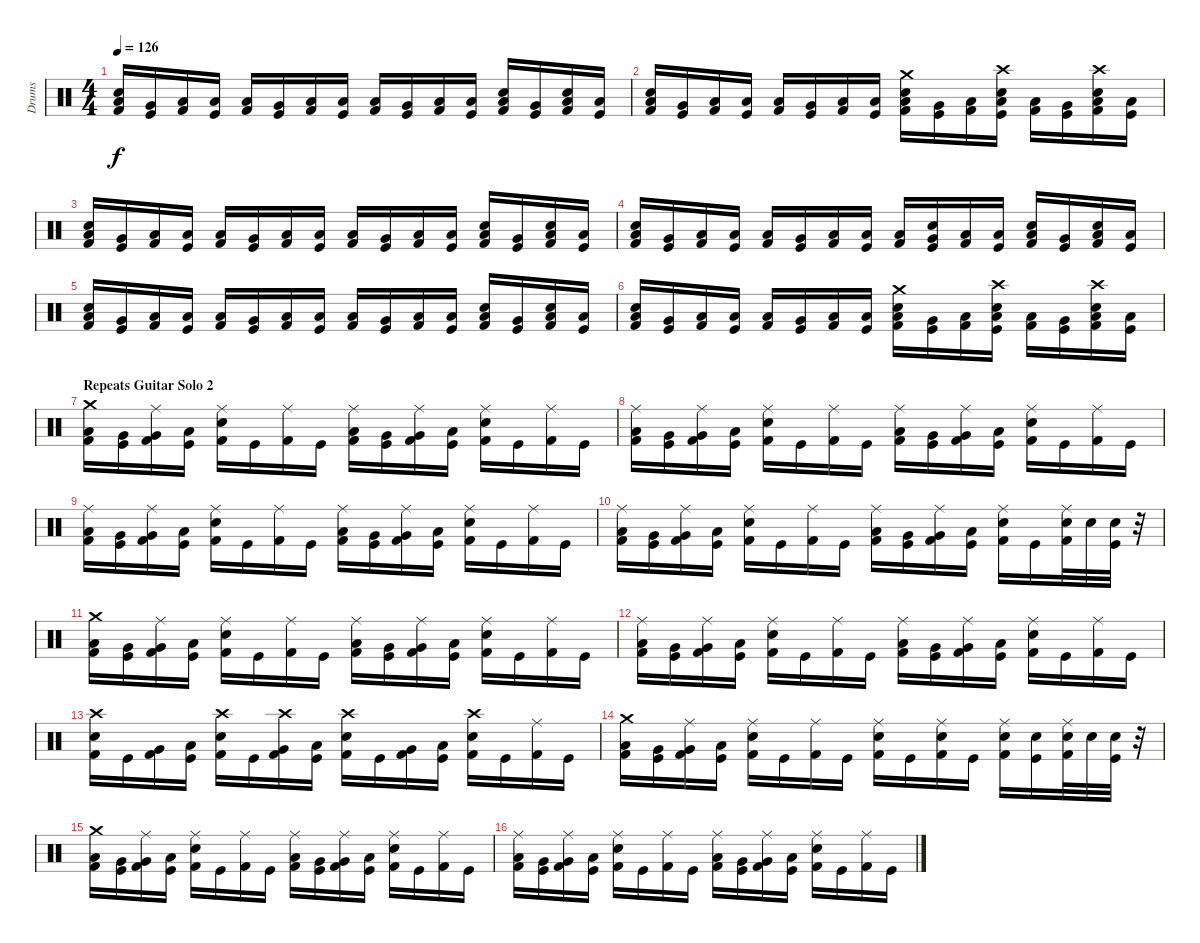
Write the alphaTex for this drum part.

\track ("Drums" "Drums") {instrument percussion}
\staff {score}
\articulation defaults
\ts (4 4)
\tempo 126
\clef neutral
\ks c
("Low Tom (hit)" "Snare (hit) 2" "Kick (hit) 2").16{dy f} ("Very Low Tom (hit)" "Kick (hit)").16 ("Low Floor Tom (hit)" "Kick (hit) 2").16 ("Low Floor Tom (hit)" "Kick (hit)").16 ("Low Tom (hit)" "Kick (hit) 2").16 ("Very Low Tom (hit)" "Kick (hit)").16 ("Low Floor Tom (hit)" "Kick (hit) 2").16 ("Low Floor Tom (hit)" "Kick (hit)").16 ("Low Tom (hit)" "Kick (hit) 2").16 ("Very Low Tom (hit)" "Kick (hit)").16 ("Low Floor Tom (hit)" "Kick (hit) 2").16 ("Low Floor Tom (hit)" "Kick (hit)").16 ("Low Tom (hit)" "Snare (hit) 2" "Kick (hit) 2").16 ("Very Low Tom (hit)" "Kick (hit)").16 ("Low Floor Tom (hit)" "Snare (hit) 2" "Kick (hit) 2").16 ("Low Floor Tom (hit)" "Kick (hit)").16 |
("Low Tom (hit)" "Snare (hit) 2" "Kick (hit) 2").16 ("Very Low Tom (hit)" "Kick (hit)").16 ("Low Floor Tom (hit)" "Kick (hit) 2").16 ("Low Floor Tom (hit)" "Kick (hit)").16 ("Low Tom (hit)" "Kick (hit) 2").16 ("Very Low Tom (hit)" "Kick (hit)").16 ("Low Floor Tom (hit)" "Kick (hit) 2").16 ("Low Floor Tom (hit)" "Kick (hit)").16 ("Crash medium (hit)" "Low Tom (hit)" "Snare (hit) 2" "Kick (hit) 2").16 ("Very Low Tom (hit)" "Kick (hit)").16 ("Low Floor Tom (hit)" "Kick (hit) 2").16 ("Crash high (hit)" "Low Floor Tom (hit)" "Snare (hit) 2" "Kick (hit)").16 ("Low Tom (hit)" "Kick (hit) 2").16 ("Very Low Tom (hit)" "Kick (hit)").16 ("Crash high (hit)" "Low Floor Tom (hit)" "Snare (hit) 2" "Kick (hit) 2").16 ("Low Floor Tom (hit)" "Kick (hit)").16 |
("Low Tom (hit)" "Snare (hit) 2" "Kick (hit) 2").16 ("Very Low Tom (hit)" "Kick (hit)").16 ("Low Floor Tom (hit)" "Kick (hit) 2").16 ("Low Floor Tom (hit)" "Kick (hit)").16 ("Low Tom (hit)" "Kick (hit) 2").16 ("Very Low Tom (hit)" "Kick (hit)").16 ("Low Floor Tom (hit)" "Kick (hit) 2").16 ("Low Floor Tom (hit)" "Kick (hit)").16 ("Low Tom (hit)" "Kick (hit) 2").16 ("Very Low Tom (hit)" "Kick (hit)").16 ("Low Floor Tom (hit)" "Kick (hit) 2").16 ("Low Floor Tom (hit)" "Kick (hit)").16 ("Low Tom (hit)" "Snare (hit) 2" "Kick (hit) 2").16 ("Very Low Tom (hit)" "Kick (hit)").16 ("Low Floor Tom (hit)" "Snare (hit) 2" "Kick (hit) 2").16 ("Low Floor Tom (hit)" "Kick (hit)").16 |
("Low Tom (hit)" "Snare (hit) 2" "Kick (hit) 2").16 ("Very Low Tom (hit)" "Kick (hit)").16 ("Low Floor Tom (hit)" "Kick (hit) 2").16 ("Low Floor Tom (hit)" "Kick (hit)").16 ("Low Tom (hit)" "Kick (hit) 2").16 ("Very Low Tom (hit)" "Kick (hit)").16 ("Low Floor Tom (hit)" "Kick (hit) 2").16 ("Low Floor Tom (hit)" "Kick (hit)").16 ("Low Tom (hit)" "Kick (hit) 2").16 ("Very Low Tom (hit)" "Snare (hit) 2" "Kick (hit)").16 ("Low Floor Tom (hit)" "Kick (hit) 2").16 ("Low Floor Tom (hit)" "Kick (hit)").16 ("Low Tom (hit)" "Snare (hit) 2" "Kick (hit) 2").16 ("Very Low Tom (hit)" "Kick (hit)").16 ("Low Floor Tom (hit)" "Snare (hit) 2" "Kick (hit) 2").16 ("Low Floor Tom (hit)" "Kick (hit)").16 |
("Low Tom (hit)" "Snare (hit) 2" "Kick (hit) 2").16 ("Very Low Tom (hit)" "Kick (hit)").16 ("Low Floor Tom (hit)" "Kick (hit) 2").16 ("Low Floor Tom (hit)" "Kick (hit)").16 ("Low Tom (hit)" "Kick (hit) 2").16 ("Very Low Tom (hit)" "Kick (hit)").16 ("Low Floor Tom (hit)" "Kick (hit) 2").16 ("Low Floor Tom (hit)" "Kick (hit)").16 ("Low Tom (hit)" "Kick (hit) 2").16 ("Very Low Tom (hit)" "Kick (hit)").16 ("Low Floor Tom (hit)" "Kick (hit) 2").16 ("Low Floor Tom (hit)" "Kick (hit)").16 ("Low Tom (hit)" "Snare (hit) 2" "Kick (hit) 2").16 ("Very Low Tom (hit)" "Kick (hit)").16 ("Low Floor Tom (hit)" "Snare (hit) 2" "Kick (hit) 2").16 ("Low Floor Tom (hit)" "Kick (hit)").16 |
("Low Tom (hit)" "Snare (hit) 2" "Kick (hit) 2").16 ("Very Low Tom (hit)" "Kick (hit)").16 ("Low Floor Tom (hit)" "Kick (hit) 2").16 ("Low Floor Tom (hit)" "Kick (hit)").16 ("Low Tom (hit)" "Kick (hit) 2").16 ("Very Low Tom (hit)" "Kick (hit)").16 ("Low Floor Tom (hit)" "Kick (hit) 2").16 ("Low Floor Tom (hit)" "Kick (hit)").16 ("Crash medium (hit)" "Low Tom (hit)" "Snare (hit) 2" "Kick (hit) 2").16 ("Very Low Tom (hit)" "Kick (hit)").16 ("Low Floor Tom (hit)" "Kick (hit) 2").16 ("Crash high (hit)" "Low Floor Tom (hit)" "Snare (hit) 2" "Kick (hit)").16 ("Low Tom (hit)" "Kick (hit) 2").16 ("Very Low Tom (hit)" "Kick (hit)").16 ("Crash high (hit)" "Low Floor Tom (hit)" "Snare (hit) 2" "Kick (hit) 2").16 ("Low Floor Tom (hit)" "Kick (hit)").16 |
\section ("" "Repeats Guitar Solo 2")
("Crash medium (hit)" "Low Tom (hit)" "Kick (hit) 2").16 ("Very Low Tom (hit)" "Kick (hit)").16 ("Ride (middle)" "Very Low Tom (hit)" "Kick (hit) 2").16 ("Low Floor Tom (hit)" "Kick (hit)").16 ("Ride (middle)" "Snare (hit) 2" "Kick (hit) 2").16 "Kick (hit)".16 ("Ride (middle)" "Kick (hit) 2").16 "Kick (hit)".16 ("Ride (middle)" "Low Tom (hit)" "Kick (hit) 2").16 ("Very Low Tom (hit)" "Kick (hit)").16 ("Ride (middle)" "Very Low Tom (hit)" "Kick (hit) 2").16 ("Low Floor Tom (hit)" "Kick (hit)").16 ("Ride (middle)" "Snare (hit) 2" "Kick (hit) 2").16 "Kick (hit)".16 ("Ride (middle)" "Kick (hit) 2").16 "Kick (hit)".16 |
("Ride (middle)" "Low Tom (hit)" "Kick (hit) 2").16 ("Very Low Tom (hit)" "Kick (hit)").16 ("Ride (middle)" "Very Low Tom (hit)" "Kick (hit) 2").16 ("Low Floor Tom (hit)" "Kick (hit)").16 ("Ride (middle)" "Snare (hit) 2" "Kick (hit) 2").16 "Kick (hit)".16 ("Ride (middle)" "Kick (hit) 2").16 "Kick (hit)".16 ("Ride (middle)" "Low Tom (hit)" "Kick (hit) 2").16 ("Very Low Tom (hit)" "Kick (hit)").16 ("Ride (middle)" "Very Low Tom (hit)" "Kick (hit) 2").16 ("Low Floor Tom (hit)" "Kick (hit)").16 ("Ride (middle)" "Snare (hit) 2" "Kick (hit) 2").16 "Kick (hit)".16 ("Ride (middle)" "Kick (hit) 2").16 "Kick (hit)".16 |
("Ride (middle)" "Low Tom (hit)" "Kick (hit) 2").16 ("Very Low Tom (hit)" "Kick (hit)").16 ("Ride (middle)" "Very Low Tom (hit)" "Kick (hit) 2").16 ("Low Floor Tom (hit)" "Kick (hit)").16 ("Ride (middle)" "Snare (hit) 2" "Kick (hit) 2").16 "Kick (hit)".16 ("Ride (middle)" "Kick (hit) 2").16 "Kick (hit)".16 ("Ride (middle)" "Low Tom (hit)" "Kick (hit) 2").16 ("Very Low Tom (hit)" "Kick (hit)").16 ("Ride (middle)" "Very Low Tom (hit)" "Kick (hit) 2").16 ("Low Floor Tom (hit)" "Kick (hit)").16 ("Ride (middle)" "Snare (hit) 2" "Kick (hit) 2").16 "Kick (hit)".16 ("Ride (middle)" "Kick (hit) 2").16 "Kick (hit)".16 |
("Ride (middle)" "Low Tom (hit)" "Kick (hit) 2").16 ("Very Low Tom (hit)" "Kick (hit)").16 ("Ride (middle)" "Very Low Tom (hit)" "Kick (hit) 2").16 ("Low Floor Tom (hit)" "Kick (hit)").16 ("Ride (middle)" "Snare (hit) 2" "Kick (hit) 2").16 "Kick (hit)".16 ("Ride (middle)" "Kick (hit) 2").16 "Kick (hit)".16 ("Ride (middle)" "Low Tom (hit)" "Kick (hit) 2").16 ("Very Low Tom (hit)" "Kick (hit)").16 ("Ride (middle)" "Very Low Tom (hit)" "Kick (hit) 2").16 ("Low Floor Tom (hit)" "Kick (hit)").16 ("Ride (middle)" "Snare (hit) 2" "Kick (hit) 2").16 "Kick (hit)".16 ("Ride (middle)" "Snare (hit) 2" "Kick (hit) 2").32 "Snare (hit) 2".32 ("Snare (hit) 2" "Kick (hit)").32 r.32 |
("Crash medium (hit)" "Low Tom (hit)" "Kick (hit) 2").16 ("Very Low Tom (hit)" "Kick (hit)").16 ("Ride (middle)" "Very Low Tom (hit)" "Kick (hit) 2").16 ("Low Floor Tom (hit)" "Kick (hit)").16 ("Ride (middle)" "Snare (hit) 2" "Kick (hit) 2").16 "Kick (hit)".16 ("Ride (middle)" "Kick (hit) 2").16 "Kick (hit)".16 ("Ride (middle)" "Low Tom (hit)" "Kick (hit) 2").16 ("Very Low Tom (hit)" "Kick (hit)").16 ("Ride (middle)" "Very Low Tom (hit)" "Kick (hit) 2").16 ("Low Floor Tom (hit)" "Kick (hit)").16 ("Ride (middle)" "Snare (hit) 2" "Kick (hit) 2").16 "Kick (hit)".16 ("Ride (middle)" "Kick (hit) 2").16 "Kick (hit)".16 |
("Ride (middle)" "Low Tom (hit)" "Kick (hit) 2").16 ("Very Low Tom (hit)" "Kick (hit)").16 ("Ride (middle)" "Very Low Tom (hit)" "Kick (hit) 2").16 ("Low Floor Tom (hit)" "Kick (hit)").16 ("Ride (middle)" "Snare (hit) 2" "Kick (hit) 2").16 "Kick (hit)".16 ("Ride (middle)" "Kick (hit) 2").16 "Kick (hit)".16 ("Ride (middle)" "Low Tom (hit)" "Kick (hit) 2").16 ("Very Low Tom (hit)" "Kick (hit)").16 ("Ride (middle)" "Very Low Tom (hit)" "Kick (hit) 2").16 ("Low Floor Tom (hit)" "Kick (hit)").16 ("Ride (middle)" "Snare (hit) 2" "Kick (hit) 2").16 "Kick (hit)".16 ("Ride (middle)" "Kick (hit) 2").16 "Kick (hit)".16 |
("Crash high (hit)" "Snare (hit) 2" "Kick (hit) 2").16 "Kick (hit)".16 ("Very Low Tom (hit)" "Kick (hit) 2").16 ("Low Floor Tom (hit)" "Kick (hit)").16 ("Crash high (hit)" "Snare (hit) 2" "Kick (hit) 2").16 "Kick (hit)".16 ("Crash high (hit)" "Very Low Tom (hit)" "Kick (hit) 2").16 ("Low Floor Tom (hit)" "Kick (hit)").16 ("Crash high (hit)" "Snare (hit) 2" "Kick (hit) 2").16 "Kick (hit)".16 ("Very Low Tom (hit)" "Kick (hit) 2").16 ("Low Floor Tom (hit)" "Kick (hit)").16 ("Crash high (hit)" "Snare (hit) 2" "Kick (hit) 2").16 "Kick (hit)".16 ("Ride (middle)" "Kick (hit) 2").16 "Kick (hit)".16 |
("Crash medium (hit)" "Low Tom (hit)" "Kick (hit) 2").16 ("Very Low Tom (hit)" "Kick (hit)").16 ("Ride (middle)" "Very Low Tom (hit)" "Kick (hit) 2").16 ("Low Floor Tom (hit)" "Kick (hit)").16 ("Ride (middle)" "Snare (hit) 2" "Kick (hit) 2").16 "Kick (hit)".16 ("Ride (middle)" "Kick (hit) 2").16 "Kick (hit)".16 ("Ride (middle)" "Snare (hit) 2" "Kick (hit) 2").16 "Kick (hit)".16 ("Ride (middle)" "Snare (hit) 2" "Kick (hit) 2").16 "Kick (hit)".16 ("Ride (middle)" "Snare (hit) 2" "Kick (hit) 2").16 ("Snare (hit) 2" "Kick (hit)").16 ("Ride (middle)" "Snare (hit) 2" "Kick (hit) 2").32 "Snare (hit) 2".32 ("Snare (hit) 2" "Kick (hit)").32 r.32 |
("Crash medium (hit)" "Low Tom (hit)" "Kick (hit) 2").16 ("Very Low Tom (hit)" "Kick (hit)").16 ("Ride (middle)" "Very Low Tom (hit)" "Kick (hit) 2").16 ("Low Floor Tom (hit)" "Kick (hit)").16 ("Ride (middle)" "Snare (hit) 2" "Kick (hit) 2").16 "Kick (hit)".16 ("Ride (middle)" "Kick (hit) 2").16 "Kick (hit)".16 ("Ride (middle)" "Low Tom (hit)" "Kick (hit) 2").16 ("Very Low Tom (hit)" "Kick (hit)").16 ("Ride (middle)" "Very Low Tom (hit)" "Kick (hit) 2").16 ("Low Floor Tom (hit)" "Kick (hit)").16 ("Ride (middle)" "Snare (hit) 2" "Kick (hit) 2").16 "Kick (hit)".16 ("Ride (middle)" "Kick (hit) 2").16 "Kick (hit)".16 |
("Ride (middle)" "Low Tom (hit)" "Kick (hit) 2").16 ("Very Low Tom (hit)" "Kick (hit)").16 ("Ride (middle)" "Very Low Tom (hit)" "Kick (hit) 2").16 ("Low Floor Tom (hit)" "Kick (hit)").16 ("Ride (middle)" "Snare (hit) 2" "Kick (hit) 2").16 "Kick (hit)".16 ("Ride (middle)" "Kick (hit) 2").16 "Kick (hit)".16 ("Ride (middle)" "Low Tom (hit)" "Kick (hit) 2").16 ("Very Low Tom (hit)" "Kick (hit)").16 ("Ride (middle)" "Very Low Tom (hit)" "Kick (hit) 2").16 ("Low Floor Tom (hit)" "Kick (hit)").16 ("Ride (middle)" "Snare (hit) 2" "Kick (hit) 2").16 "Kick (hit)".16 ("Ride (middle)" "Kick (hit) 2").16 "Kick (hit)".16
